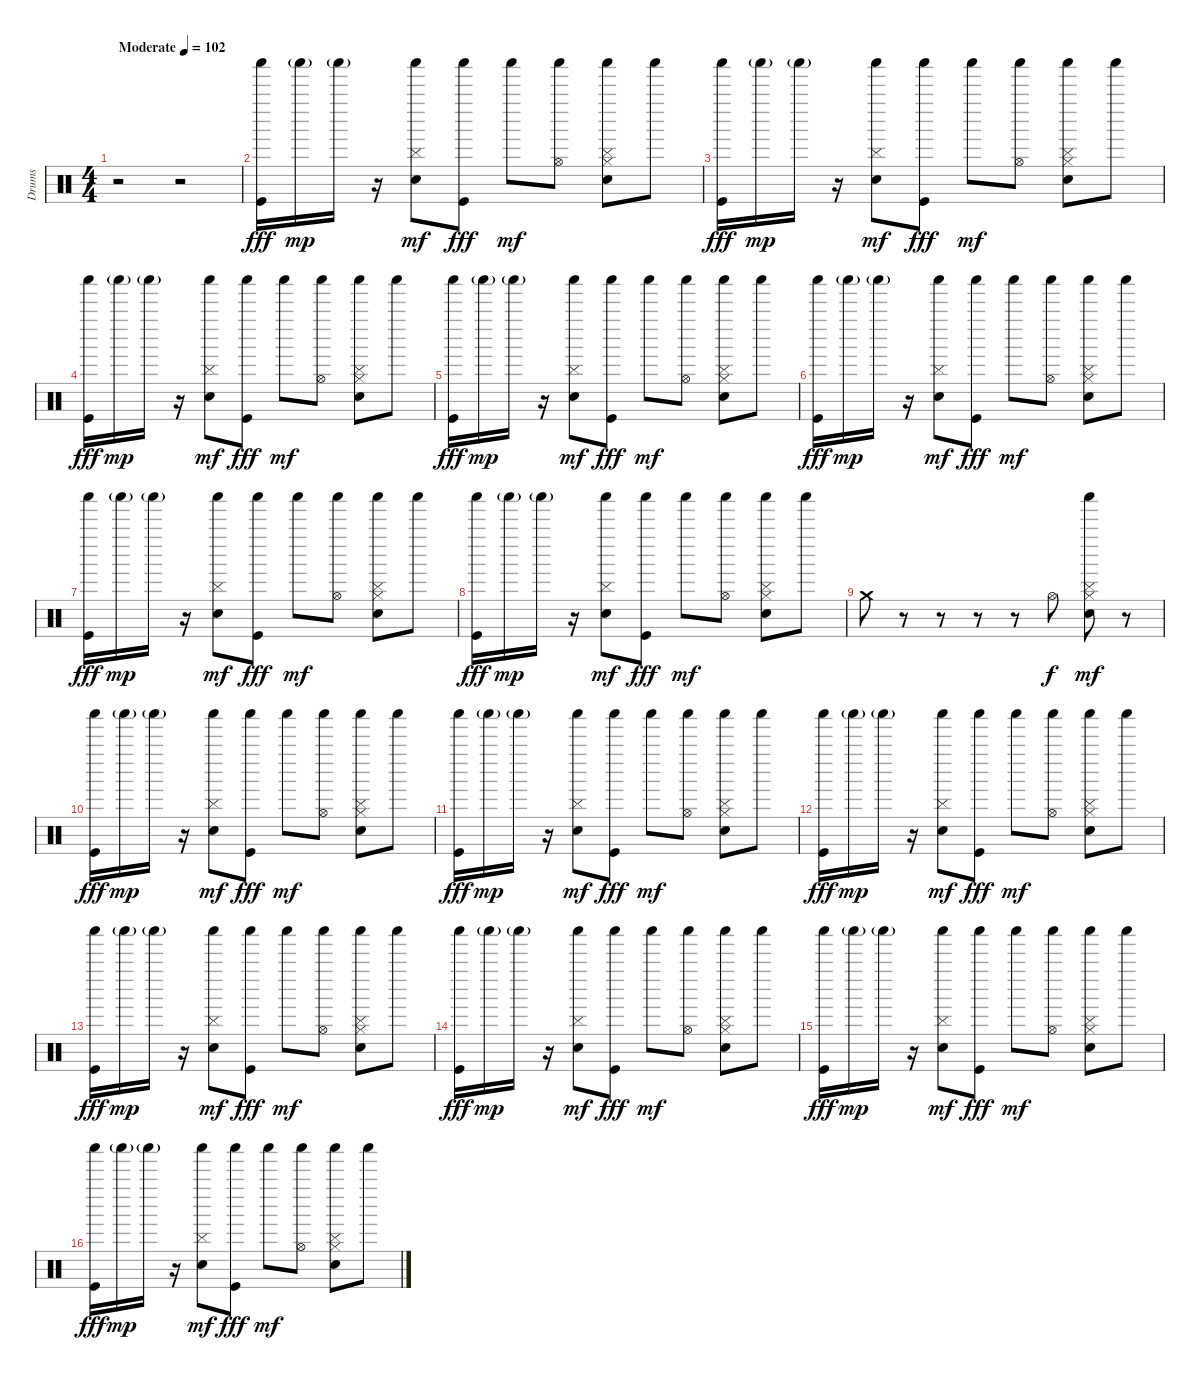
\track ("Drums" "Drums") {instrument percussion}
\staff {score}
\articulation defaults
\ts (4 4)
\tempo (102 "Moderate")
\clef neutral
\ks c
r.2{dy fff} r.2 |
("Shaker (hit)" "Kick (hit)").16 "Shaker (hit)"{g}.16{dy mp} "Shaker (hit)"{g}.16 r.16 ("Shaker (hit)" "Hand Clap (hit)" "Cymbal (hit)").8{dy mf} ("Shaker (hit)" "Kick (hit)").8{dy fff} "Shaker (hit)".8{dy mf} ("Shaker (hit)" "Hi-Hat (open)").8 ("Hi-Hat (closed)" "Hand Clap (hit)" "Cymbal (hit)" "Shaker (hit)").8 "Shaker (hit)".8 |
("Shaker (hit)" "Kick (hit)").16{dy fff} "Shaker (hit)"{g}.16{dy mp} "Shaker (hit)"{g}.16 r.16 ("Shaker (hit)" "Hand Clap (hit)" "Cymbal (hit)").8{dy mf} ("Shaker (hit)" "Kick (hit)").8{dy fff} "Shaker (hit)".8{dy mf} ("Shaker (hit)" "Hi-Hat (open)").8 ("Hi-Hat (closed)" "Hand Clap (hit)" "Cymbal (hit)" "Shaker (hit)").8 "Shaker (hit)".8 |
("Shaker (hit)" "Kick (hit)").16{dy fff} "Shaker (hit)"{g}.16{dy mp} "Shaker (hit)"{g}.16 r.16 ("Shaker (hit)" "Hand Clap (hit)" "Cymbal (hit)").8{dy mf} ("Shaker (hit)" "Kick (hit)").8{dy fff} "Shaker (hit)".8{dy mf} ("Shaker (hit)" "Hi-Hat (open)").8 ("Hi-Hat (closed)" "Hand Clap (hit)" "Cymbal (hit)" "Shaker (hit)").8 "Shaker (hit)".8 |
("Shaker (hit)" "Kick (hit)").16{dy fff} "Shaker (hit)"{g}.16{dy mp} "Shaker (hit)"{g}.16 r.16 ("Shaker (hit)" "Hand Clap (hit)" "Cymbal (hit)").8{dy mf} ("Shaker (hit)" "Kick (hit)").8{dy fff} "Shaker (hit)".8{dy mf} ("Shaker (hit)" "Hi-Hat (open)").8 ("Hi-Hat (closed)" "Hand Clap (hit)" "Cymbal (hit)" "Shaker (hit)").8 "Shaker (hit)".8 |
("Shaker (hit)" "Kick (hit)").16{dy fff} "Shaker (hit)"{g}.16{dy mp} "Shaker (hit)"{g}.16 r.16 ("Shaker (hit)" "Hand Clap (hit)" "Cymbal (hit)").8{dy mf} ("Shaker (hit)" "Kick (hit)").8{dy fff} "Shaker (hit)".8{dy mf} ("Shaker (hit)" "Hi-Hat (open)").8 ("Hi-Hat (closed)" "Hand Clap (hit)" "Cymbal (hit)" "Shaker (hit)").8 "Shaker (hit)".8 |
("Shaker (hit)" "Kick (hit)").16{dy fff} "Shaker (hit)"{g}.16{dy mp} "Shaker (hit)"{g}.16 r.16 ("Shaker (hit)" "Hand Clap (hit)" "Cymbal (hit)").8{dy mf} ("Shaker (hit)" "Kick (hit)").8{dy fff} "Shaker (hit)".8{dy mf} ("Shaker (hit)" "Hi-Hat (open)").8 ("Hi-Hat (closed)" "Hand Clap (hit)" "Cymbal (hit)" "Shaker (hit)").8 "Shaker (hit)".8 |
("Shaker (hit)" "Kick (hit)").16{dy fff} "Shaker (hit)"{g}.16{dy mp} "Shaker (hit)"{g}.16 r.16 ("Shaker (hit)" "Hand Clap (hit)" "Cymbal (hit)").8{dy mf} ("Shaker (hit)" "Kick (hit)").8{dy fff} "Shaker (hit)".8{dy mf} ("Shaker (hit)" "Hi-Hat (open)").8 ("Hi-Hat (closed)" "Hand Clap (hit)" "Cymbal (hit)" "Shaker (hit)").8 "Shaker (hit)".8 |
"Crash medium (hit)".8 r.8 r.8 r.8 r.8 "Hi-Hat (open)".8{dy f} ("Hi-Hat (closed)" "Hand Clap (hit)" "Cymbal (hit)" "Shaker (hit)").8{dy mf} r.8 |
("Shaker (hit)" "Kick (hit)").16{dy fff} "Shaker (hit)"{g}.16{dy mp} "Shaker (hit)"{g}.16 r.16 ("Shaker (hit)" "Hand Clap (hit)" "Cymbal (hit)").8{dy mf} ("Shaker (hit)" "Kick (hit)").8{dy fff} "Shaker (hit)".8{dy mf} ("Shaker (hit)" "Hi-Hat (open)").8 ("Hi-Hat (closed)" "Hand Clap (hit)" "Cymbal (hit)" "Shaker (hit)").8 "Shaker (hit)".8 |
("Shaker (hit)" "Kick (hit)").16{dy fff} "Shaker (hit)"{g}.16{dy mp} "Shaker (hit)"{g}.16 r.16 ("Shaker (hit)" "Hand Clap (hit)" "Cymbal (hit)").8{dy mf} ("Shaker (hit)" "Kick (hit)").8{dy fff} "Shaker (hit)".8{dy mf} ("Shaker (hit)" "Hi-Hat (open)").8 ("Hi-Hat (closed)" "Hand Clap (hit)" "Cymbal (hit)" "Shaker (hit)").8 "Shaker (hit)".8 |
("Shaker (hit)" "Kick (hit)").16{dy fff} "Shaker (hit)"{g}.16{dy mp} "Shaker (hit)"{g}.16 r.16 ("Shaker (hit)" "Hand Clap (hit)" "Cymbal (hit)").8{dy mf} ("Shaker (hit)" "Kick (hit)").8{dy fff} "Shaker (hit)".8{dy mf} ("Shaker (hit)" "Hi-Hat (open)").8 ("Hi-Hat (closed)" "Hand Clap (hit)" "Cymbal (hit)" "Shaker (hit)").8 "Shaker (hit)".8 |
("Shaker (hit)" "Kick (hit)").16{dy fff} "Shaker (hit)"{g}.16{dy mp} "Shaker (hit)"{g}.16 r.16 ("Shaker (hit)" "Hand Clap (hit)" "Cymbal (hit)").8{dy mf} ("Shaker (hit)" "Kick (hit)").8{dy fff} "Shaker (hit)".8{dy mf} ("Shaker (hit)" "Hi-Hat (open)").8 ("Hi-Hat (closed)" "Hand Clap (hit)" "Cymbal (hit)" "Shaker (hit)").8 "Shaker (hit)".8 |
("Shaker (hit)" "Kick (hit)").16{dy fff} "Shaker (hit)"{g}.16{dy mp} "Shaker (hit)"{g}.16 r.16 ("Shaker (hit)" "Hand Clap (hit)" "Cymbal (hit)").8{dy mf} ("Shaker (hit)" "Kick (hit)").8{dy fff} "Shaker (hit)".8{dy mf} ("Shaker (hit)" "Hi-Hat (open)").8 ("Hi-Hat (closed)" "Hand Clap (hit)" "Cymbal (hit)" "Shaker (hit)").8 "Shaker (hit)".8 |
("Shaker (hit)" "Kick (hit)").16{dy fff} "Shaker (hit)"{g}.16{dy mp} "Shaker (hit)"{g}.16 r.16 ("Shaker (hit)" "Hand Clap (hit)" "Cymbal (hit)").8{dy mf} ("Shaker (hit)" "Kick (hit)").8{dy fff} "Shaker (hit)".8{dy mf} ("Shaker (hit)" "Hi-Hat (open)").8 ("Hi-Hat (closed)" "Hand Clap (hit)" "Cymbal (hit)" "Shaker (hit)").8 "Shaker (hit)".8 |
("Shaker (hit)" "Kick (hit)").16{dy fff} "Shaker (hit)"{g}.16{dy mp} "Shaker (hit)"{g}.16 r.16 ("Shaker (hit)" "Hand Clap (hit)" "Cymbal (hit)").8{dy mf} ("Shaker (hit)" "Kick (hit)").8{dy fff} "Shaker (hit)".8{dy mf} ("Shaker (hit)" "Hi-Hat (open)").8 ("Hi-Hat (closed)" "Hand Clap (hit)" "Cymbal (hit)" "Shaker (hit)").8 "Shaker (hit)".8
